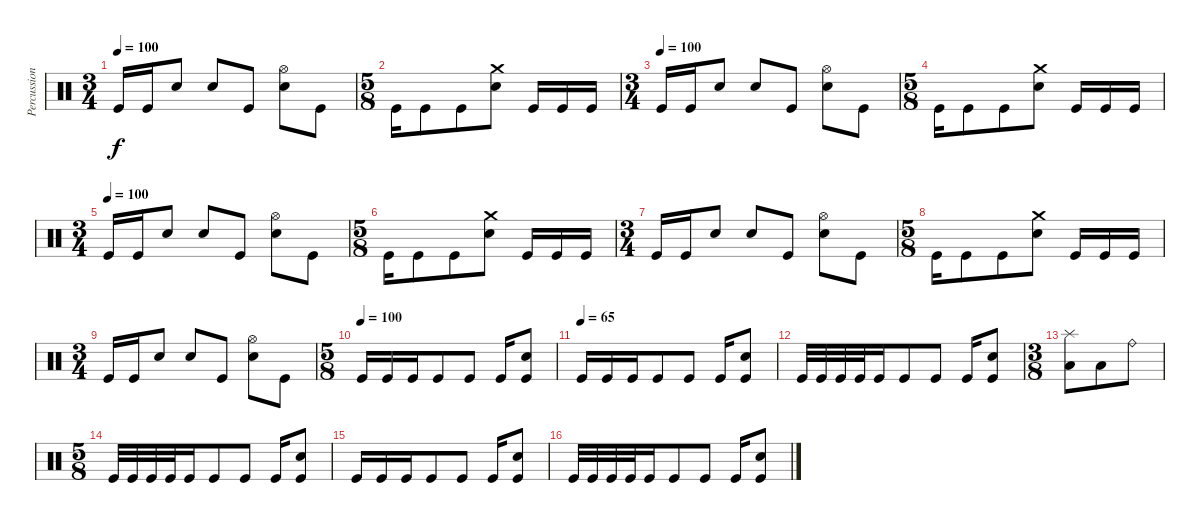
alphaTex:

\track ("Percussion" "Percussion") {instrument percussion}
\staff {score}
\articulation defaults
\ts (3 4)
\tempo 100
\clef neutral
\ks c "Kick (hit)".16{dy f} "Kick (hit)".16 "Electric Snare (hit)".8 "Electric Snare (hit)".8 "Kick (hit)".8
("Hi-Hat (open)" "Electric Snare (hit)").8 "Kick (hit)".8 |
\ts (5 8)
"Kick (hit)".16 "Kick (hit)".8 "Kick (hit)".8 ("Crash medium (hit)" "Electric Snare (hit)").8 "Kick (hit)".16 "Kick (hit)".16 "Kick (hit)".16 |
\ts (3 4)
\tempo (100)
"Kick (hit)".16 "Kick (hit)".16 "Electric Snare (hit)".8 "Electric Snare (hit)".8 "Kick (hit)".8 ("Hi-Hat (open)" "Electric Snare (hit)").8 "Kick (hit)".8 |
\ts (5 8)
"Kick (hit)".16 "Kick (hit)".8 "Kick (hit)".8 ("Crash medium (hit)" "Electric Snare (hit)").8 "Kick (hit)".16 "Kick (hit)".16 "Kick (hit)".16 |
\ts (3 4)
\tempo (100)
"Kick (hit)".16 "Kick (hit)".16 "Electric Snare (hit)".8 "Electric Snare (hit)".8 "Kick (hit)".8 ("Hi-Hat (open)" "Electric Snare (hit)").8 "Kick (hit)".8 |
\ts (5 8)
"Kick (hit)".16 "Kick (hit)".8 "Kick (hit)".8 ("Crash medium (hit)" "Electric Snare (hit)").8 "Kick (hit)".16 "Kick (hit)".16 "Kick (hit)".16 |
\ts (3 4)
"Kick (hit)".16 "Kick (hit)".16 "Electric Snare (hit)".8 "Electric Snare (hit)".8 "Kick (hit)".8 ("Hi-Hat (open)" "Electric Snare (hit)").8 "Kick (hit)".8 |
\ts (5 8)
"Kick (hit)".16 "Kick (hit)".8 "Kick (hit)".8 ("Crash medium (hit)" "Electric Snare (hit)").8 "Kick (hit)".16 "Kick (hit)".16 "Kick (hit)".16 |
\ts (3 4)
"Kick (hit)".16 "Kick (hit)".16 "Electric Snare (hit)".8 "Electric Snare (hit)".8 "Kick (hit)".8 ("Hi-Hat (open)" "Electric Snare (hit)").8 "Kick (hit)".8 |
\ts (5 8)
\tempo (100)
"Kick (hit)".16 "Kick (hit)".16 "Kick (hit)".16 "Kick (hit)".8 "Kick (hit)".8 "Kick (hit)".16 ("Electric Snare (hit)" "Kick (hit)").8 |
\tempo (65)
"Kick (hit)".16 "Kick (hit)".16 "Kick (hit)".16 "Kick (hit)".8 "Kick (hit)".8 "Kick (hit)".16 ("Electric Snare (hit)" "Kick (hit)").8 |
"Kick (hit)".32 "Kick (hit)".32 "Kick (hit)".32 "Kick (hit)".32 "Kick (hit)".16 "Kick (hit)".8 "Kick (hit)".8 "Kick (hit)".16 ("Electric Snare (hit)" "Kick (hit)").8 |
\ts (3 8)
("Splash (hit)" "Low Floor Tom (hit)").8 "Low Floor Tom (hit)".8 "Ride (bell)".8 |
\ts (5 8)
"Kick (hit)".32 "Kick (hit)".32 "Kick (hit)".32 "Kick (hit)".32 "Kick (hit)".16 "Kick (hit)".8 "Kick (hit)".8 "Kick (hit)".16 ("Electric Snare (hit)" "Kick (hit)").8 |
"Kick (hit)".16 "Kick (hit)".16 "Kick (hit)".16 "Kick (hit)".8 "Kick (hit)".8 "Kick (hit)".16 ("Electric Snare (hit)" "Kick (hit)").8 |
"Kick (hit)".32 "Kick (hit)".32 "Kick (hit)".32 "Kick (hit)".32 "Kick (hit)".16 "Kick (hit)".8 "Kick (hit)".8 "Kick (hit)".16 ("Electric Snare (hit)" "Kick (hit)").8
